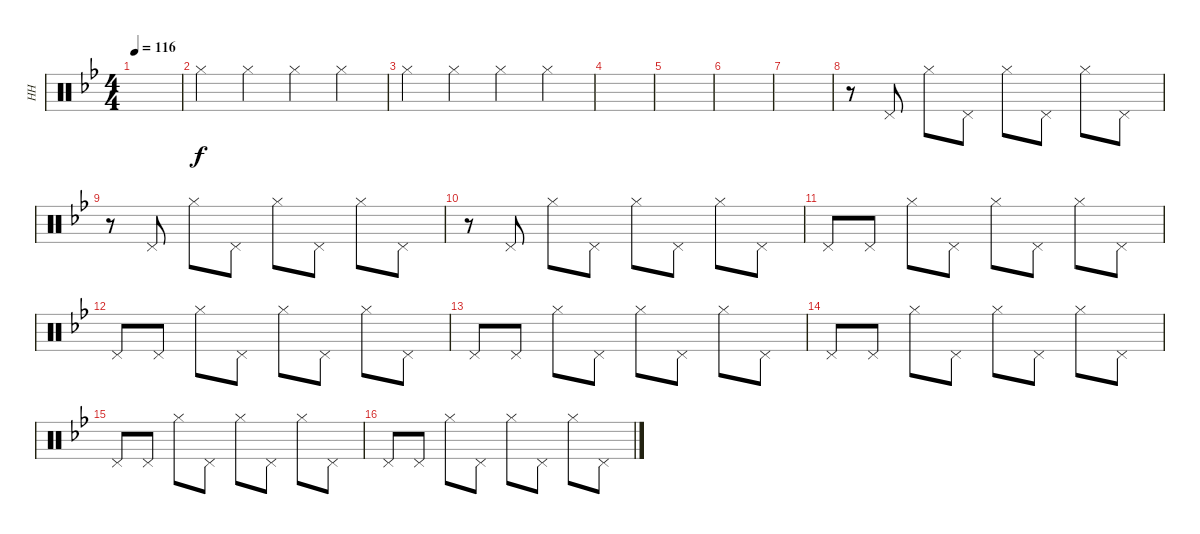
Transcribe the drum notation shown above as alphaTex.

\track ("HH" "HH") {instrument percussion}
\staff {score}
\articulation defaults
\ts (4 4)
\tempo 116
\clef neutral
\ks bb
|
"Hi-Hat (closed)".4 "Hi-Hat (closed)".4 "Hi-Hat (closed)".4 "Hi-Hat (closed)".4 |
"Hi-Hat (closed)".4 "Hi-Hat (closed)".4 "Hi-Hat (closed)".4 "Hi-Hat (closed)".4 |
|
|
|
|
r.8 "Pedal Hi-Hat (hit)".8 "Hi-Hat (closed)".8 "Pedal Hi-Hat (hit)".8 "Hi-Hat (closed)".8 "Pedal Hi-Hat (hit)".8 "Hi-Hat (closed)".8 "Pedal Hi-Hat (hit)".8 |
r.8 "Pedal Hi-Hat (hit)".8 "Hi-Hat (closed)".8 "Pedal Hi-Hat (hit)".8 "Hi-Hat (closed)".8 "Pedal Hi-Hat (hit)".8 "Hi-Hat (closed)".8 "Pedal Hi-Hat (hit)".8 |
r.8 "Pedal Hi-Hat (hit)".8 "Hi-Hat (closed)".8 "Pedal Hi-Hat (hit)".8 "Hi-Hat (closed)".8 "Pedal Hi-Hat (hit)".8 "Hi-Hat (closed)".8 "Pedal Hi-Hat (hit)".8 |
"Pedal Hi-Hat (hit)".8 "Pedal Hi-Hat (hit)".8 "Hi-Hat (closed)".8 "Pedal Hi-Hat (hit)".8 "Hi-Hat (closed)".8 "Pedal Hi-Hat (hit)".8 "Hi-Hat (closed)".8 "Pedal Hi-Hat (hit)".8 |
"Pedal Hi-Hat (hit)".8 "Pedal Hi-Hat (hit)".8 "Hi-Hat (closed)".8 "Pedal Hi-Hat (hit)".8 "Hi-Hat (closed)".8 "Pedal Hi-Hat (hit)".8 "Hi-Hat (closed)".8 "Pedal Hi-Hat (hit)".8 |
"Pedal Hi-Hat (hit)".8 "Pedal Hi-Hat (hit)".8 "Hi-Hat (closed)".8 "Pedal Hi-Hat (hit)".8 "Hi-Hat (closed)".8 "Pedal Hi-Hat (hit)".8 "Hi-Hat (closed)".8 "Pedal Hi-Hat (hit)".8 |
"Pedal Hi-Hat (hit)".8 "Pedal Hi-Hat (hit)".8 "Hi-Hat (closed)".8 "Pedal Hi-Hat (hit)".8 "Hi-Hat (closed)".8 "Pedal Hi-Hat (hit)".8 "Hi-Hat (closed)".8 "Pedal Hi-Hat (hit)".8 |
"Pedal Hi-Hat (hit)".8 "Pedal Hi-Hat (hit)".8 "Hi-Hat (closed)".8 "Pedal Hi-Hat (hit)".8 "Hi-Hat (closed)".8 "Pedal Hi-Hat (hit)".8 "Hi-Hat (closed)".8 "Pedal Hi-Hat (hit)".8 |
"Pedal Hi-Hat (hit)".8 "Pedal Hi-Hat (hit)".8 "Hi-Hat (closed)".8 "Pedal Hi-Hat (hit)".8 "Hi-Hat (closed)".8 "Pedal Hi-Hat (hit)".8 "Hi-Hat (closed)".8 "Pedal Hi-Hat (hit)".8
